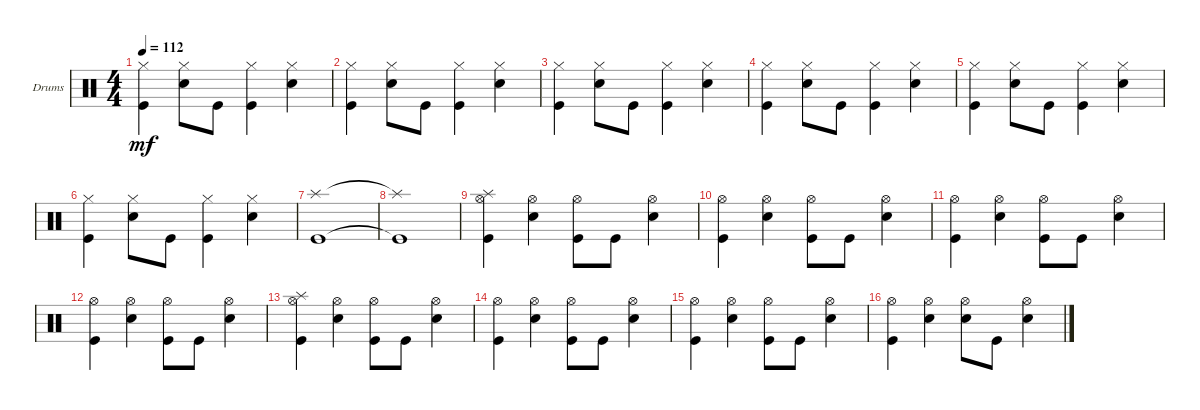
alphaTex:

\defaultSystemsLayout 4
\bracketExtendMode groupsimilarinstruments
\firstSystemTrackNameOrientation horizontal
\otherSystemsTrackNameOrientation horizontal
\track ("Drumkit" "Drums") {instrument percussion}
\staff {score}
\articulation defaults
\ts (4 4)
\tempo 112
\clef neutral
\ks c
("Kick (hit)" "Hi-Hat (closed)").4{dy mf} ("Snare (hit) 2" "Hi-Hat (closed)").8 "Kick (hit)".8 ("Kick (hit)" "Hi-Hat (closed)").4 ("Snare (hit) 2" "Hi-Hat (closed)").4 |
("Kick (hit)" "Hi-Hat (closed)").4 ("Snare (hit) 2" "Hi-Hat (closed)").8 "Kick (hit)".8 ("Kick (hit)" "Hi-Hat (closed)").4 ("Snare (hit) 2" "Hi-Hat (closed)").4 |
("Kick (hit)" "Hi-Hat (closed)").4 ("Snare (hit) 2" "Hi-Hat (closed)").8 "Kick (hit)".8 ("Kick (hit)" "Hi-Hat (closed)").4 ("Snare (hit) 2" "Hi-Hat (closed)").4 |
("Kick (hit)" "Hi-Hat (closed)").4 ("Snare (hit) 2" "Hi-Hat (closed)").8 "Kick (hit)".8 ("Kick (hit)" "Hi-Hat (closed)").4 ("Snare (hit) 2" "Hi-Hat (closed)").4 |
("Kick (hit)" "Hi-Hat (closed)").4 ("Snare (hit) 2" "Hi-Hat (closed)").8 "Kick (hit)".8 ("Kick (hit)" "Hi-Hat (closed)").4 ("Snare (hit) 2" "Hi-Hat (closed)").4 |
("Kick (hit)" "Hi-Hat (closed)").4 ("Snare (hit) 2" "Hi-Hat (closed)").8 "Kick (hit)".8 ("Kick (hit)" "Hi-Hat (closed)").4 ("Snare (hit) 2" "Hi-Hat (closed)").4 |
("Kick (hit)" "Splash (hit)").1 |
("Kick (hit)"{t} "Splash (hit)"{t}).1 |
("Kick (hit)" "Hi-Hat (open)" "Splash (hit)").4 ("Hi-Hat (open)" "Snare (hit) 2").4 ("Hi-Hat (open)" "Kick (hit)").8 "Kick (hit)".8 ("Hi-Hat (open)" "Snare (hit) 2").4 |
("Kick (hit)" "Hi-Hat (open)").4 ("Hi-Hat (open)" "Snare (hit) 2").4 ("Hi-Hat (open)" "Kick (hit)").8 "Kick (hit)".8 ("Hi-Hat (open)" "Snare (hit) 2").4 |
("Kick (hit)" "Hi-Hat (open)").4 ("Hi-Hat (open)" "Snare (hit) 2").4 ("Hi-Hat (open)" "Kick (hit)").8 "Kick (hit)".8 ("Hi-Hat (open)" "Snare (hit) 2").4 |
("Kick (hit)" "Hi-Hat (open)").4 ("Hi-Hat (open)" "Snare (hit) 2").4 ("Hi-Hat (open)" "Kick (hit)").8 "Kick (hit)".8 ("Hi-Hat (open)" "Snare (hit) 2").4 |
("Kick (hit)" "Hi-Hat (open)" "Splash (hit)").4 ("Hi-Hat (open)" "Snare (hit) 2").4 ("Hi-Hat (open)" "Kick (hit)").8 "Kick (hit)".8 ("Hi-Hat (open)" "Snare (hit) 2").4 |
("Kick (hit)" "Hi-Hat (open)").4 ("Hi-Hat (open)" "Snare (hit) 2").4 ("Hi-Hat (open)" "Kick (hit)").8 "Kick (hit)".8 ("Hi-Hat (open)" "Snare (hit) 2").4 |
("Kick (hit)" "Hi-Hat (open)").4 ("Hi-Hat (open)" "Snare (hit) 2").4 ("Hi-Hat (open)" "Kick (hit)").8 "Kick (hit)".8 ("Hi-Hat (open)" "Snare (hit) 2").4 |
("Kick (hit)" "Hi-Hat (open)").4 ("Hi-Hat (open)" "Snare (hit) 2").4 ("Hi-Hat (open)" "Snare (hit) 2").8 "Kick (hit)".8 ("Hi-Hat (open)" "Snare (hit) 2").4
